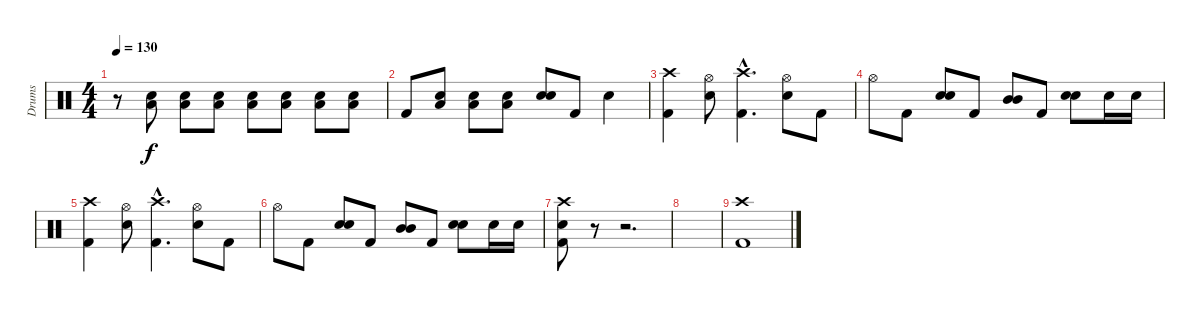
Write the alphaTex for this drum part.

\track ("Drums" "Drums") {instrument percussion}
\staff {score}
\articulation defaults
\ts (4 4)
\tempo 130
\clef neutral
\ks c
r.8{dy f} ("Low Floor Tom (hit)" "Snare (hit) 2").8 ("Low Floor Tom (hit)" "Snare (hit) 2").8 ("Low Floor Tom (hit)" "Snare (hit) 2").8 ("Low Floor Tom (hit)" "Snare (hit) 2").8 ("Low Floor Tom (hit)" "Snare (hit) 2").8 ("Low Floor Tom (hit)" "Snare (hit) 2").8 ("Low Floor Tom (hit)" "Snare (hit) 2").8 |
"Kick (hit) 2".8 ("Low Floor Tom (hit)" "Snare (hit) 2").8 ("Low Floor Tom (hit)" "Snare (hit) 2").8 ("Low Floor Tom (hit)" "Snare (hit) 2").8 ("Snare (hit) 2" "Snare (hit) 2").8{bd 240} "Kick (hit) 2".8 "Snare (hit) 2".4 |
("Crash high (hit)" "Kick (hit) 2").4 ("Hi-Hat (open)" "Snare (hit) 2").8 ("Crash high (hit)"{hac} "Kick (hit) 2"{hac}).4{d} ("Hi-Hat (open)" "Snare (hit) 2").8 "Kick (hit) 2".8 |
"Hi-Hat (open)".8 "Kick (hit) 2".8 ("Snare (hit) 2" "Snare (hit) 2").8{bd 240} "Kick (hit) 2".8 ("Mid Tom (hit)" "Mid Tom (hit)").8{bd 240} "Kick (hit) 2".8 ("Snare (hit) 2" "Snare (hit) 2").8{bd 240} "Snare (hit) 2".16 "Snare (hit) 2".16 |
("Crash high (hit)" "Kick (hit) 2").4 ("Hi-Hat (open)" "Snare (hit) 2").8 ("Crash high (hit)"{hac} "Kick (hit) 2"{hac}).4{d} ("Hi-Hat (open)" "Snare (hit) 2").8 "Kick (hit) 2".8 |
"Hi-Hat (open)".8 "Kick (hit) 2".8 ("Snare (hit) 2" "Snare (hit) 2").8{bd 240} "Kick (hit) 2".8 ("Mid Tom (hit)" "Mid Tom (hit)").8{bd 240} "Kick (hit) 2".8 ("Snare (hit) 2" "Snare (hit) 2").8{bd 240} "Snare (hit) 2".16 "Snare (hit) 2".16 |
("Crash high (hit)" "Snare (hit) 2" "Kick (hit) 2").8 r.8 r.2{d} |
|
("Crash high (hit)" "Kick (hit) 2").1
